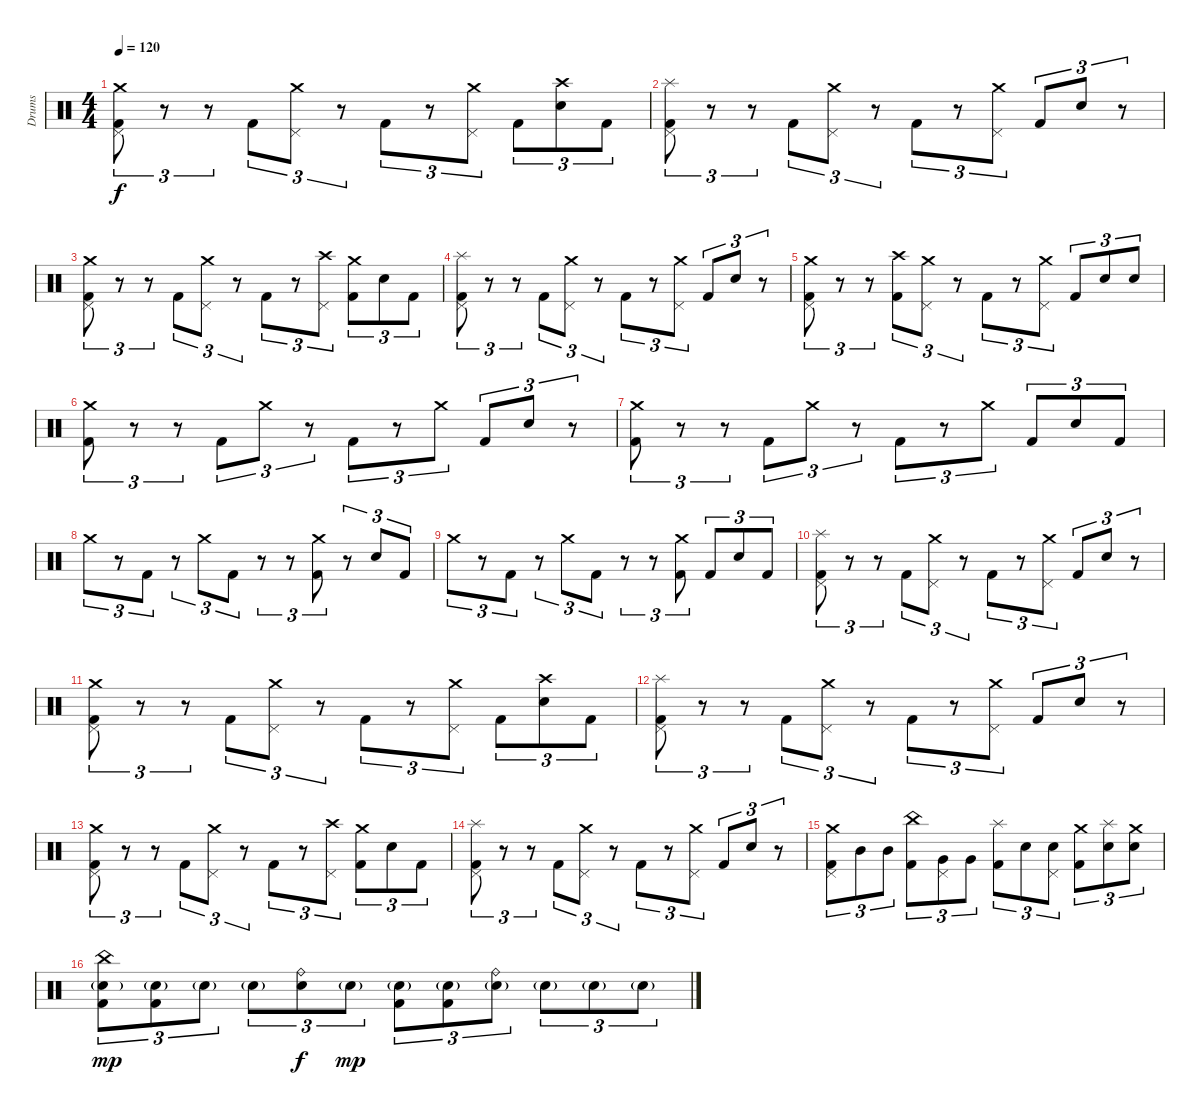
\track ("Drums" "Drums") {instrument percussion}
\staff {score}
\articulation defaults
\ts (4 4)
\tempo 120
\clef neutral
\ks c
("Crash medium (hit)" "Pedal Hi-Hat (hit)" "Kick (hit) 2").8{tu (3 2) dy f} r.8{tu (3 2)} r.8{tu (3 2)} "Kick (hit) 2".8{tu (3 2)} ("Crash medium (hit)" "Pedal Hi-Hat (hit)").8{tu (3 2)} r.8{tu (3 2)} "Kick (hit) 2".8{tu (3 2)} r.8{tu (3 2)} ("Crash medium (hit)" "Pedal Hi-Hat (hit)").8{tu (3 2)} "Kick (hit) 2".8{tu (3 2)} ("Crash high (hit)" "Electric Snare (hit)").8{tu (3 2)} "Kick (hit) 2".8{tu (3 2)} |
("Splash (hit)" "Pedal Hi-Hat (hit)" "Kick (hit) 2").8{tu (3 2)} r.8{tu (3 2)} r.8{tu (3 2)} "Kick (hit) 2".8{tu (3 2)} ("Crash medium (hit)" "Pedal Hi-Hat (hit)").8{tu (3 2)} r.8{tu (3 2)} "Kick (hit) 2".8{tu (3 2)} r.8{tu (3 2)} ("Crash medium (hit)" "Pedal Hi-Hat (hit)").8{tu (3 2)} "Kick (hit) 2".8{tu (3 2)} "Electric Snare (hit)".8{tu (3 2)} r.8{tu (3 2)} |
("Crash medium (hit)" "Pedal Hi-Hat (hit)" "Kick (hit) 2").8{tu (3 2)} r.8{tu (3 2)} r.8{tu (3 2)} "Kick (hit) 2".8{tu (3 2)} ("Crash medium (hit)" "Pedal Hi-Hat (hit)").8{tu (3 2)} r.8{tu (3 2)} "Kick (hit) 2".8{tu (3 2)} r.8{tu (3 2)} ("Crash high (hit)" "Pedal Hi-Hat (hit)").8{tu (3 2)} ("Crash medium (hit)" "Kick (hit) 2").8{tu (3 2)} "Electric Snare (hit)".8{tu (3 2)} "Kick (hit) 2".8{tu (3 2)} |
("Splash (hit)" "Pedal Hi-Hat (hit)" "Kick (hit) 2").8{tu (3 2)} r.8{tu (3 2)} r.8{tu (3 2)} "Kick (hit) 2".8{tu (3 2)} ("Crash medium (hit)" "Pedal Hi-Hat (hit)").8{tu (3 2)} r.8{tu (3 2)} "Kick (hit) 2".8{tu (3 2)} r.8{tu (3 2)} ("Crash medium (hit)" "Pedal Hi-Hat (hit)").8{tu (3 2)} "Kick (hit) 2".8{tu (3 2)} "Electric Snare (hit)".8{tu (3 2)} r.8{tu (3 2)} |
("Crash medium (hit)" "Pedal Hi-Hat (hit)" "Kick (hit) 2").8{tu (3 2)} r.8{tu (3 2)} r.8{tu (3 2)} ("Crash high (hit)" "Kick (hit) 2").8{tu (3 2)} ("Crash medium (hit)" "Pedal Hi-Hat (hit)").8{tu (3 2)} r.8{tu (3 2)} "Kick (hit) 2".8{tu (3 2)} r.8{tu (3 2)} ("Crash medium (hit)" "Pedal Hi-Hat (hit)").8{tu (3 2)} "Kick (hit) 2".8{tu (3 2)} "Electric Snare (hit)".8{tu (3 2)} "Electric Snare (hit)".8{tu (3 2)} |
("Crash medium (hit)" "Kick (hit) 2").8{tu (3 2)} r.8{tu (3 2)} r.8{tu (3 2)} "Kick (hit) 2".8{tu (3 2)} "Crash medium (hit)".8{tu (3 2)} r.8{tu (3 2)} "Kick (hit) 2".8{tu (3 2)} r.8{tu (3 2)} "Crash medium (hit)".8{tu (3 2)} "Kick (hit) 2".8{tu (3 2)} "Electric Snare (hit)".8{tu (3 2)} r.8{tu (3 2)} |
("Crash medium (hit)" "Kick (hit) 2").8{tu (3 2)} r.8{tu (3 2)} r.8{tu (3 2)} "Kick (hit) 2".8{tu (3 2)} "Crash medium (hit)".8{tu (3 2)} r.8{tu (3 2)} "Kick (hit) 2".8{tu (3 2)} r.8{tu (3 2)} "Crash medium (hit)".8{tu (3 2)} "Kick (hit) 2".8{tu (3 2)} "Electric Snare (hit)".8{tu (3 2)} "Kick (hit) 2".8{tu (3 2)} |
"Crash medium (hit)".8{tu (3 2)} r.8{tu (3 2)} "Kick (hit) 2".8{tu (3 2)} r.8{tu (3 2)} "Crash medium (hit)".8{tu (3 2)} "Kick (hit) 2".8{tu (3 2)} r.8{tu (3 2)} r.8{tu (3 2)} ("Crash medium (hit)" "Kick (hit) 2").8{tu (3 2)} r.8{tu (3 2)} "Electric Snare (hit)".8{tu (3 2)} "Kick (hit) 2".8{tu (3 2)} |
"Crash medium (hit)".8{tu (3 2)} r.8{tu (3 2)} "Kick (hit) 2".8{tu (3 2)} r.8{tu (3 2)} "Crash medium (hit)".8{tu (3 2)} "Kick (hit) 2".8{tu (3 2)} r.8{tu (3 2)} r.8{tu (3 2)} ("Crash medium (hit)" "Kick (hit) 2").8{tu (3 2)} "Kick (hit) 2".8{tu (3 2)} "Electric Snare (hit)".8{tu (3 2)} "Kick (hit) 2".8{tu (3 2)} |
("Splash (hit)" "Pedal Hi-Hat (hit)" "Kick (hit) 2").8{tu (3 2)} r.8{tu (3 2)} r.8{tu (3 2)} "Kick (hit) 2".8{tu (3 2)} ("Crash medium (hit)" "Pedal Hi-Hat (hit)").8{tu (3 2)} r.8{tu (3 2)} "Kick (hit) 2".8{tu (3 2)} r.8{tu (3 2)} ("Crash medium (hit)" "Pedal Hi-Hat (hit)").8{tu (3 2)} "Kick (hit) 2".8{tu (3 2)} "Electric Snare (hit)".8{tu (3 2)} r.8{tu (3 2)} |
("Crash medium (hit)" "Pedal Hi-Hat (hit)" "Kick (hit) 2").8{tu (3 2)} r.8{tu (3 2)} r.8{tu (3 2)} "Kick (hit) 2".8{tu (3 2)} ("Crash medium (hit)" "Pedal Hi-Hat (hit)").8{tu (3 2)} r.8{tu (3 2)} "Kick (hit) 2".8{tu (3 2)} r.8{tu (3 2)} ("Crash medium (hit)" "Pedal Hi-Hat (hit)").8{tu (3 2)} "Kick (hit) 2".8{tu (3 2)} ("Crash high (hit)" "Electric Snare (hit)").8{tu (3 2)} "Kick (hit) 2".8{tu (3 2)} |
("Splash (hit)" "Pedal Hi-Hat (hit)" "Kick (hit) 2").8{tu (3 2)} r.8{tu (3 2)} r.8{tu (3 2)} "Kick (hit) 2".8{tu (3 2)} ("Crash medium (hit)" "Pedal Hi-Hat (hit)").8{tu (3 2)} r.8{tu (3 2)} "Kick (hit) 2".8{tu (3 2)} r.8{tu (3 2)} ("Crash medium (hit)" "Pedal Hi-Hat (hit)").8{tu (3 2)} "Kick (hit) 2".8{tu (3 2)} "Electric Snare (hit)".8{tu (3 2)} r.8{tu (3 2)} |
("Crash medium (hit)" "Pedal Hi-Hat (hit)" "Kick (hit) 2").8{tu (3 2)} r.8{tu (3 2)} r.8{tu (3 2)} "Kick (hit) 2".8{tu (3 2)} ("Crash medium (hit)" "Pedal Hi-Hat (hit)").8{tu (3 2)} r.8{tu (3 2)} "Kick (hit) 2".8{tu (3 2)} r.8{tu (3 2)} ("Crash high (hit)" "Pedal Hi-Hat (hit)").8{tu (3 2)} ("Crash medium (hit)" "Kick (hit) 2").8{tu (3 2)} "Electric Snare (hit)".8{tu (3 2)} "Kick (hit) 2".8{tu (3 2)} |
("Splash (hit)" "Pedal Hi-Hat (hit)" "Kick (hit) 2").8{tu (3 2)} r.8{tu (3 2)} r.8{tu (3 2)} "Kick (hit) 2".8{tu (3 2)} ("Crash medium (hit)" "Pedal Hi-Hat (hit)").8{tu (3 2)} r.8{tu (3 2)} "Kick (hit) 2".8{tu (3 2)} r.8{tu (3 2)} ("Crash medium (hit)" "Pedal Hi-Hat (hit)").8{tu (3 2)} "Kick (hit) 2".8{tu (3 2)} "Electric Snare (hit)".8{tu (3 2)} r.8{tu (3 2)} |
("Crash medium (hit)" "Pedal Hi-Hat (hit)" "Kick (hit) 2").8{tu (3 2)} "Mid Tom (hit)".8{tu (3 2)} "Mid Tom (hit)".8{tu (3 2)} ("China (hit)" "Kick (hit) 2").8{tu (3 2)} ("Pedal Hi-Hat (hit)" "Very Low Tom (hit)").8{tu (3 2)} "Very Low Tom (hit)".8{tu (3 2)} ("Splash (hit)" "Kick (hit) 2").8{tu (3 2)} "Electric Snare (hit)".8{tu (3 2)} ("Pedal Hi-Hat (hit)" "Electric Snare (hit)").8{tu (3 2)} ("Crash medium (hit)" "Kick (hit) 2").8{tu (3 2)} ("Splash (hit)" "Electric Snare (hit)").8{tu (3 2)} ("Crash medium (hit)" "Electric Snare (hit)").8{tu (3 2)} |
\section ("" "")
("China (hit)" "Electric Snare (hit)"{g} "Kick (hit) 2").8{tu (3 2) dy mp} ("Electric Snare (hit)"{g} "Kick (hit) 2").8{tu (3 2)} "Electric Snare (hit)"{g}.8{tu (3 2)} "Electric Snare (hit)"{g}.8{tu (3 2)} ("Ride (bell)" "Electric Snare (hit)").8{tu (3 2) dy f} "Electric Snare (hit)"{g}.8{tu (3 2) dy mp} ("Electric Snare (hit)"{g} "Kick (hit) 2").8{tu (3 2)} ("Electric Snare (hit)"{g} "Kick (hit) 2").8{tu (3 2)} ("Ride (bell)" "Electric Snare (hit)"{g}).8{tu (3 2)} "Electric Snare (hit)"{g}.8{tu (3 2)} "Electric Snare (hit)"{g}.8{tu (3 2)} "Electric Snare (hit)"{g}.8{tu (3 2)}
